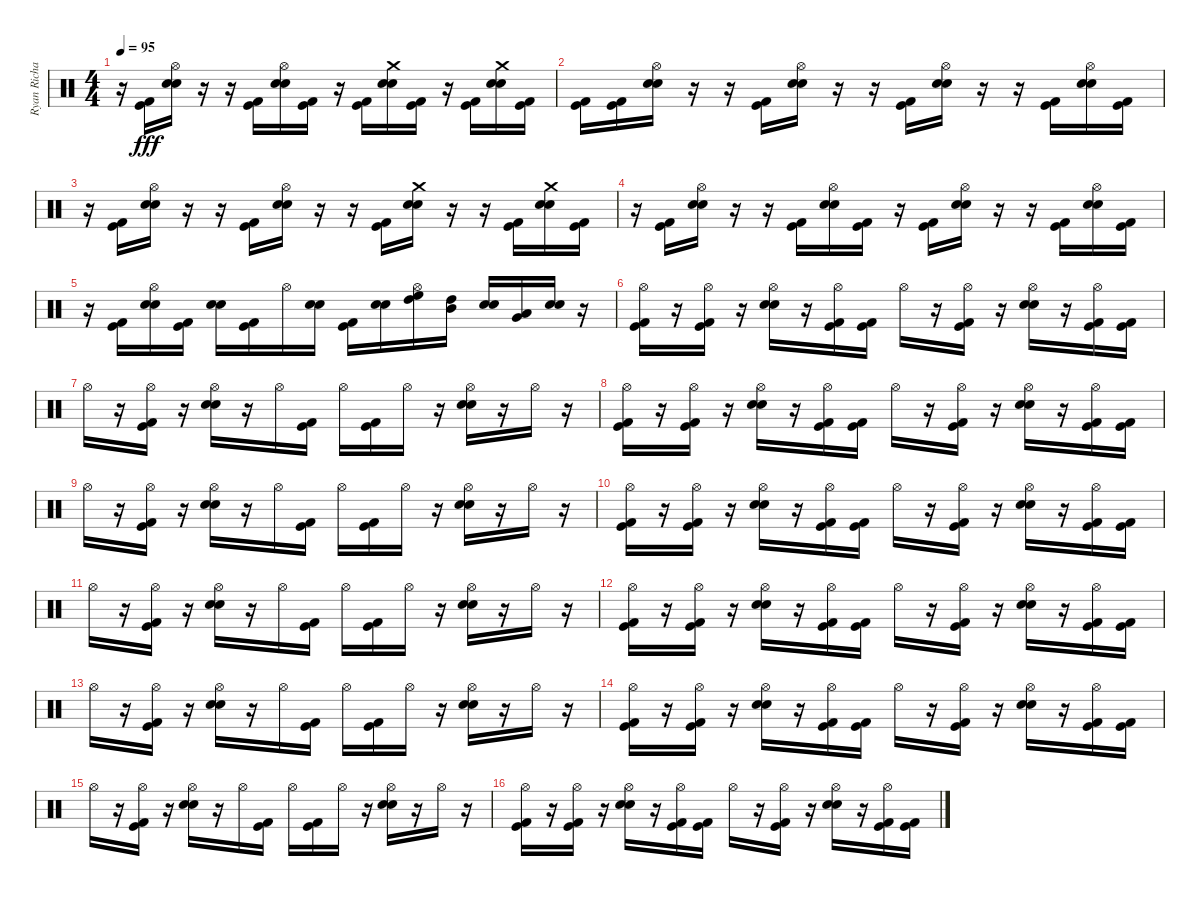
\track ("Ryan Richards" "Ryan Richa") {instrument percussion}
\staff {score}
\articulation defaults
\ts (4 4)
\tempo 95
\clef neutral
\ks c
r.16{dy fff} ("Kick (hit)" "Kick (hit) 2").16 ("Hi-Hat (open)" "Electric Snare (hit)" "Snare (hit) 2").16 r.16 r.16 ("Kick (hit)" "Kick (hit) 2").16 ("Hi-Hat (open)" "Electric Snare (hit)" "Snare (hit) 2").16 ("Kick (hit)" "Kick (hit) 2").16 r.16 ("Kick (hit)" "Kick (hit) 2").16 ("Crash medium (hit)" "Electric Snare (hit)" "Snare (hit) 2").16 ("Kick (hit)" "Kick (hit) 2").16 r.16 ("Kick (hit)" "Kick (hit) 2").16 ("Crash medium (hit)" "Electric Snare (hit)" "Snare (hit) 2").16 ("Kick (hit)" "Kick (hit) 2").16 |
("Kick (hit)" "Kick (hit) 2").16 ("Kick (hit)" "Kick (hit) 2").16 ("Hi-Hat (open)" "Electric Snare (hit)" "Snare (hit) 2").16 r.16 r.16 ("Kick (hit)" "Kick (hit) 2").16 ("Hi-Hat (open)" "Electric Snare (hit)" "Snare (hit) 2").16 r.16 r.16 ("Kick (hit)" "Kick (hit) 2").16 ("Hi-Hat (open)" "Electric Snare (hit)" "Snare (hit) 2").16 r.16 r.16 ("Kick (hit)" "Kick (hit) 2").16 ("Hi-Hat (open)" "Electric Snare (hit)" "Snare (hit) 2").16 ("Kick (hit)" "Kick (hit) 2").16 |
r.16 ("Kick (hit)" "Kick (hit) 2").16 ("Hi-Hat (open)" "Electric Snare (hit)" "Snare (hit) 2").16 r.16 r.16 ("Kick (hit)" "Kick (hit) 2").16 ("Hi-Hat (open)" "Electric Snare (hit)" "Snare (hit) 2").16 r.16 r.16 ("Kick (hit)" "Kick (hit) 2").16 ("Crash medium (hit)" "Electric Snare (hit)" "Snare (hit) 2").16 r.16 r.16 ("Kick (hit)" "Kick (hit) 2").16 ("Crash medium (hit)" "Electric Snare (hit)" "Snare (hit) 2").16 ("Kick (hit)" "Kick (hit) 2").16 |
r.16 ("Kick (hit)" "Kick (hit) 2").16 ("Hi-Hat (open)" "Electric Snare (hit)" "Snare (hit) 2").16 r.16 r.16 ("Kick (hit)" "Kick (hit) 2").16 ("Hi-Hat (open)" "Electric Snare (hit)" "Snare (hit) 2").16 ("Kick (hit)" "Kick (hit) 2").16 r.16 ("Kick (hit)" "Kick (hit) 2").16 ("Hi-Hat (open)" "Electric Snare (hit)" "Snare (hit) 2").16 r.16 r.16 ("Kick (hit)" "Kick (hit) 2").16 ("Hi-Hat (open)" "Electric Snare (hit)" "Snare (hit) 2").16 ("Kick (hit)" "Kick (hit) 2").16 |
r.16 ("Kick (hit)" "Kick (hit) 2").16 ("Hi-Hat (open)" "Electric Snare (hit)" "Snare (hit) 2").16 ("Kick (hit)" "Kick (hit) 2").16 ("Electric Snare (hit)" "Snare (hit) 2").16 ("Kick (hit)" "Kick (hit) 2").16 "Hi-Hat (open)".16 ("Electric Snare (hit)" "Snare (hit) 2").16 ("Kick (hit)" "Kick (hit) 2").16 ("Electric Snare (hit)" "Snare (hit) 2").16 ("High Floor Tom (hit)" "Hi-Hat (open)" "High Tom (hit)").16 ("High Tom (hit)" "Mid Tom (hit)").16 ("Electric Snare (hit)" "Snare (hit) 2").16 ("Low Tom (hit)" "Very Low Tom (hit)").16 ("Electric Snare (hit)" "Snare (hit) 2").16 r.16 |
("Kick (hit)" "Hi-Hat (open)" "Kick (hit) 2").16 r.16 ("Kick (hit)" "Hi-Hat (open)" "Kick (hit) 2").16 r.16 ("Hi-Hat (open)" "Electric Snare (hit)" "Snare (hit) 2").16 r.16 ("Kick (hit)" "Hi-Hat (open)" "Kick (hit) 2").16 ("Kick (hit)" "Kick (hit) 2").16 "Hi-Hat (open)".16 r.16 ("Kick (hit)" "Hi-Hat (open)" "Kick (hit) 2").16 r.16 ("Hi-Hat (open)" "Electric Snare (hit)" "Snare (hit) 2").16 r.16 ("Kick (hit)" "Hi-Hat (open)" "Kick (hit) 2").16 ("Kick (hit)" "Kick (hit) 2").16 |
"Hi-Hat (open)".16 r.16 ("Kick (hit)" "Hi-Hat (open)" "Kick (hit) 2").16 r.16 ("Hi-Hat (open)" "Electric Snare (hit)" "Snare (hit) 2").16 r.16 "Hi-Hat (open)".16 ("Kick (hit)" "Kick (hit) 2").16 "Hi-Hat (open)".16 ("Kick (hit)" "Kick (hit) 2").16 "Hi-Hat (open)".16 r.16 ("Hi-Hat (open)" "Electric Snare (hit)" "Snare (hit) 2").16 r.16 "Hi-Hat (open)".16 r.16 |
("Kick (hit)" "Hi-Hat (open)" "Kick (hit) 2").16 r.16 ("Kick (hit)" "Hi-Hat (open)" "Kick (hit) 2").16 r.16 ("Hi-Hat (open)" "Electric Snare (hit)" "Snare (hit) 2").16 r.16 ("Kick (hit)" "Hi-Hat (open)" "Kick (hit) 2").16 ("Kick (hit)" "Kick (hit) 2").16 "Hi-Hat (open)".16 r.16 ("Kick (hit)" "Hi-Hat (open)" "Kick (hit) 2").16 r.16 ("Hi-Hat (open)" "Electric Snare (hit)" "Snare (hit) 2").16 r.16 ("Kick (hit)" "Hi-Hat (open)" "Kick (hit) 2").16 ("Kick (hit)" "Kick (hit) 2").16 |
"Hi-Hat (open)".16 r.16 ("Kick (hit)" "Hi-Hat (open)" "Kick (hit) 2").16 r.16 ("Hi-Hat (open)" "Electric Snare (hit)" "Snare (hit) 2").16 r.16 "Hi-Hat (open)".16 ("Kick (hit)" "Kick (hit) 2").16 "Hi-Hat (open)".16 ("Kick (hit)" "Kick (hit) 2").16 "Hi-Hat (open)".16 r.16 ("Hi-Hat (open)" "Electric Snare (hit)" "Snare (hit) 2").16 r.16 "Hi-Hat (open)".16 r.16 |
("Kick (hit)" "Hi-Hat (open)" "Kick (hit) 2").16 r.16 ("Kick (hit)" "Hi-Hat (open)" "Kick (hit) 2").16 r.16 ("Hi-Hat (open)" "Electric Snare (hit)" "Snare (hit) 2").16 r.16 ("Kick (hit)" "Hi-Hat (open)" "Kick (hit) 2").16 ("Kick (hit)" "Kick (hit) 2").16 "Hi-Hat (open)".16 r.16 ("Kick (hit)" "Hi-Hat (open)" "Kick (hit) 2").16 r.16 ("Hi-Hat (open)" "Electric Snare (hit)" "Snare (hit) 2").16 r.16 ("Kick (hit)" "Hi-Hat (open)" "Kick (hit) 2").16 ("Kick (hit)" "Kick (hit) 2").16 |
"Hi-Hat (open)".16 r.16 ("Kick (hit)" "Hi-Hat (open)" "Kick (hit) 2").16 r.16 ("Hi-Hat (open)" "Electric Snare (hit)" "Snare (hit) 2").16 r.16 "Hi-Hat (open)".16 ("Kick (hit)" "Kick (hit) 2").16 "Hi-Hat (open)".16 ("Kick (hit)" "Kick (hit) 2").16 "Hi-Hat (open)".16 r.16 ("Hi-Hat (open)" "Electric Snare (hit)" "Snare (hit) 2").16 r.16 "Hi-Hat (open)".16 r.16 |
("Kick (hit)" "Hi-Hat (open)" "Kick (hit) 2").16 r.16 ("Kick (hit)" "Hi-Hat (open)" "Kick (hit) 2").16 r.16 ("Hi-Hat (open)" "Electric Snare (hit)" "Snare (hit) 2").16 r.16 ("Kick (hit)" "Hi-Hat (open)" "Kick (hit) 2").16 ("Kick (hit)" "Kick (hit) 2").16 "Hi-Hat (open)".16 r.16 ("Kick (hit)" "Hi-Hat (open)" "Kick (hit) 2").16 r.16 ("Hi-Hat (open)" "Electric Snare (hit)" "Snare (hit) 2").16 r.16 ("Kick (hit)" "Hi-Hat (open)" "Kick (hit) 2").16 ("Kick (hit)" "Kick (hit) 2").16 |
"Hi-Hat (open)".16 r.16 ("Kick (hit)" "Hi-Hat (open)" "Kick (hit) 2").16 r.16 ("Hi-Hat (open)" "Electric Snare (hit)" "Snare (hit) 2").16 r.16 "Hi-Hat (open)".16 ("Kick (hit)" "Kick (hit) 2").16 "Hi-Hat (open)".16 ("Kick (hit)" "Kick (hit) 2").16 "Hi-Hat (open)".16 r.16 ("Hi-Hat (open)" "Electric Snare (hit)" "Snare (hit) 2").16 r.16 "Hi-Hat (open)".16 r.16 |
("Kick (hit)" "Hi-Hat (open)" "Kick (hit) 2").16 r.16 ("Kick (hit)" "Hi-Hat (open)" "Kick (hit) 2").16 r.16 ("Hi-Hat (open)" "Electric Snare (hit)" "Snare (hit) 2").16 r.16 ("Kick (hit)" "Hi-Hat (open)" "Kick (hit) 2").16 ("Kick (hit)" "Kick (hit) 2").16 "Hi-Hat (open)".16 r.16 ("Kick (hit)" "Hi-Hat (open)" "Kick (hit) 2").16 r.16 ("Hi-Hat (open)" "Electric Snare (hit)" "Snare (hit) 2").16 r.16 ("Kick (hit)" "Hi-Hat (open)" "Kick (hit) 2").16 ("Kick (hit)" "Kick (hit) 2").16 |
"Hi-Hat (open)".16 r.16 ("Kick (hit)" "Hi-Hat (open)" "Kick (hit) 2").16 r.16 ("Hi-Hat (open)" "Electric Snare (hit)" "Snare (hit) 2").16 r.16 "Hi-Hat (open)".16 ("Kick (hit)" "Kick (hit) 2").16 "Hi-Hat (open)".16 ("Kick (hit)" "Kick (hit) 2").16 "Hi-Hat (open)".16 r.16 ("Hi-Hat (open)" "Electric Snare (hit)" "Snare (hit) 2").16 r.16 "Hi-Hat (open)".16 r.16 |
("Kick (hit)" "Hi-Hat (open)" "Kick (hit) 2").16 r.16 ("Kick (hit)" "Hi-Hat (open)" "Kick (hit) 2").16 r.16 ("Hi-Hat (open)" "Electric Snare (hit)" "Snare (hit) 2").16 r.16 ("Kick (hit)" "Hi-Hat (open)" "Kick (hit) 2").16 ("Kick (hit)" "Kick (hit) 2").16 "Hi-Hat (open)".16 r.16 ("Kick (hit)" "Hi-Hat (open)" "Kick (hit) 2").16 r.16 ("Hi-Hat (open)" "Electric Snare (hit)" "Snare (hit) 2").16 r.16 ("Kick (hit)" "Hi-Hat (open)" "Kick (hit) 2").16 ("Kick (hit)" "Kick (hit) 2").16
